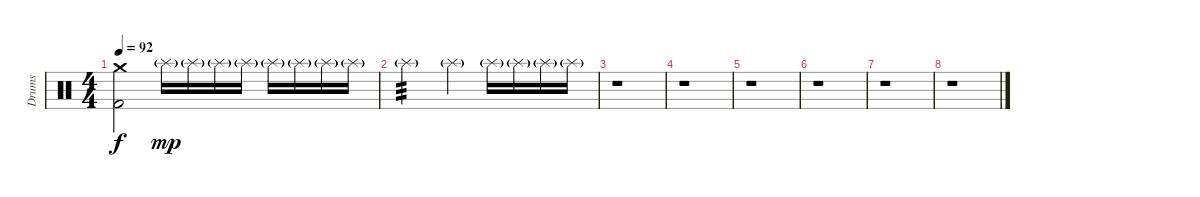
\track ("Drums" "Drums") {instrument percussion}
\staff {score}
\articulation defaults
\ts (4 4)
\tempo 92
\clef neutral
\ks c
("Crash medium (hit)" "Kick (hit) 2").2{dy f} "Splash (hit)"{g}.16{dy mp} "Splash (hit)"{g}.16 "Splash (hit)"{g}.16 "Splash (hit)"{g}.16 "Splash (hit)"{g}.16 "Splash (hit)"{g}.16 "Splash (hit)"{g}.16 "Splash (hit)"{g}.16 |
"Splash (hit)"{g}.2{tp 3} "Splash (hit)"{g}.4 "Splash (hit)"{g}.16 "Splash (hit)"{g}.16 "Splash (hit)"{g}.16 "Splash (hit)"{g}.16 |
r.1 |
r.1 |
r.1 |
r.1 |
r.1 |
r.1
